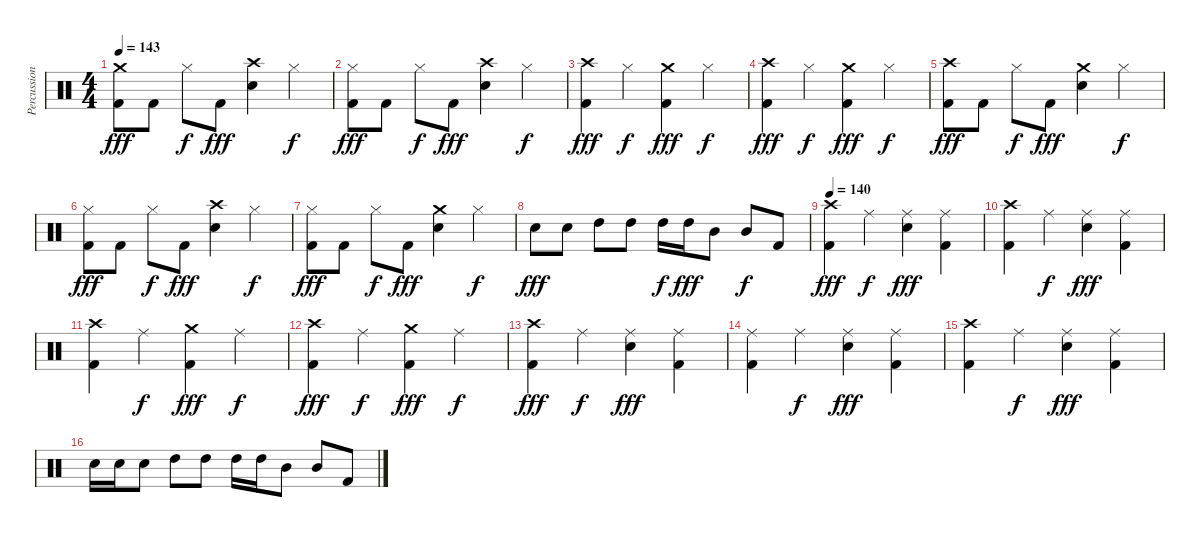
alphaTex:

\track ("Percussion" "Percussion") {instrument percussion}
\staff {score}
\articulation defaults
\ts (4 4)
\tempo 143
\clef neutral
\ks c
("Crash medium (hit)" "Kick (hit) 2").8{dy fff} "Kick (hit) 2".8 "Hi-Hat (closed)".8{dy f} "Kick (hit) 2".8{dy fff} ("Crash high (hit)" "Electric Snare (hit)").4 "Hi-Hat (closed)".4{dy f} |
("Hi-Hat (closed)" "Kick (hit) 2").8{dy fff} "Kick (hit) 2".8 "Hi-Hat (closed)".8{dy f} "Kick (hit) 2".8{dy fff} ("Crash high (hit)" "Electric Snare (hit)").4 "Hi-Hat (closed)".4{dy f} |
("Crash high (hit)" "Kick (hit) 2").4{dy fff} "Hi-Hat (closed)".4{dy f} ("Crash medium (hit)" "Kick (hit) 2").4{dy fff} "Hi-Hat (closed)".4{dy f} |
("Crash high (hit)" "Kick (hit) 2").4{dy fff} "Hi-Hat (closed)".4{dy f} ("Crash medium (hit)" "Kick (hit) 2").4{dy fff} "Hi-Hat (closed)".4{dy f} |
("Crash high (hit)" "Kick (hit) 2").8{dy fff} "Kick (hit) 2".8 "Hi-Hat (closed)".8{dy f} "Kick (hit) 2".8{dy fff} ("Crash medium (hit)" "Electric Snare (hit)").4 "Hi-Hat (closed)".4{dy f} |
("Hi-Hat (closed)" "Kick (hit) 2").8{dy fff} "Kick (hit) 2".8 "Hi-Hat (closed)".8{dy f} "Kick (hit) 2".8{dy fff} ("Crash high (hit)" "Electric Snare (hit)").4 "Hi-Hat (closed)".4{dy f} |
("Hi-Hat (closed)" "Kick (hit) 2").8{dy fff} "Kick (hit) 2".8 "Hi-Hat (closed)".8{dy f} "Kick (hit) 2".8{dy fff} ("Crash medium (hit)" "Electric Snare (hit)").4 "Hi-Hat (closed)".4{dy f} |
"Electric Snare (hit)".8{dy fff} "Electric Snare (hit)".8 "High Tom (hit)".8 "High Tom (hit)".8 "High Tom (hit)".16{dy f} "High Tom (hit)".16{dy fff} "Mid Tom (hit)".8 "Mid Tom (hit)".8{dy f} "Kick (hit) 2".8 |
\tempo 140
("Crash high (hit)" "Kick (hit) 2").4{dy fff} "Ride (middle)".4{dy f} ("Ride (middle)" "Electric Snare (hit)").4{dy fff} ("Ride (middle)" "Kick (hit) 2").4 |
("Crash high (hit)" "Kick (hit) 2").4 "Ride (middle)".4{dy f} ("Ride (middle)" "Electric Snare (hit)").4{dy fff} ("Ride (middle)" "Kick (hit) 2").4 |
("Crash high (hit)" "Kick (hit) 2").4 "Ride (middle)".4{dy f} ("Crash medium (hit)" "Kick (hit) 2").4{dy fff} "Ride (middle)".4{dy f} |
("Crash high (hit)" "Kick (hit) 2").4{dy fff} "Ride (middle)".4{dy f} ("Crash medium (hit)" "Kick (hit) 2").4{dy fff} "Ride (middle)".4{dy f} |
("Crash high (hit)" "Kick (hit) 2").4{dy fff} "Ride (middle)".4{dy f} ("Ride (middle)" "Electric Snare (hit)").4{dy fff} ("Ride (middle)" "Kick (hit) 2").4 |
("Ride (middle)" "Kick (hit) 2").4 "Ride (middle)".4{dy f} ("Ride (middle)" "Electric Snare (hit)").4{dy fff} ("Ride (middle)" "Kick (hit) 2").4 |
("Crash high (hit)" "Kick (hit) 2").4 "Ride (middle)".4{dy f} ("Ride (middle)" "Electric Snare (hit)").4{dy fff} ("Ride (middle)" "Kick (hit) 2").4 |
"Electric Snare (hit)".16 "Electric Snare (hit)".16 "Electric Snare (hit)".8 "High Tom (hit)".8 "High Tom (hit)".8 "High Tom (hit)".16 "High Tom (hit)".16 "Mid Tom (hit)".8 "Mid Tom (hit)".8 "Kick (hit) 2".8
